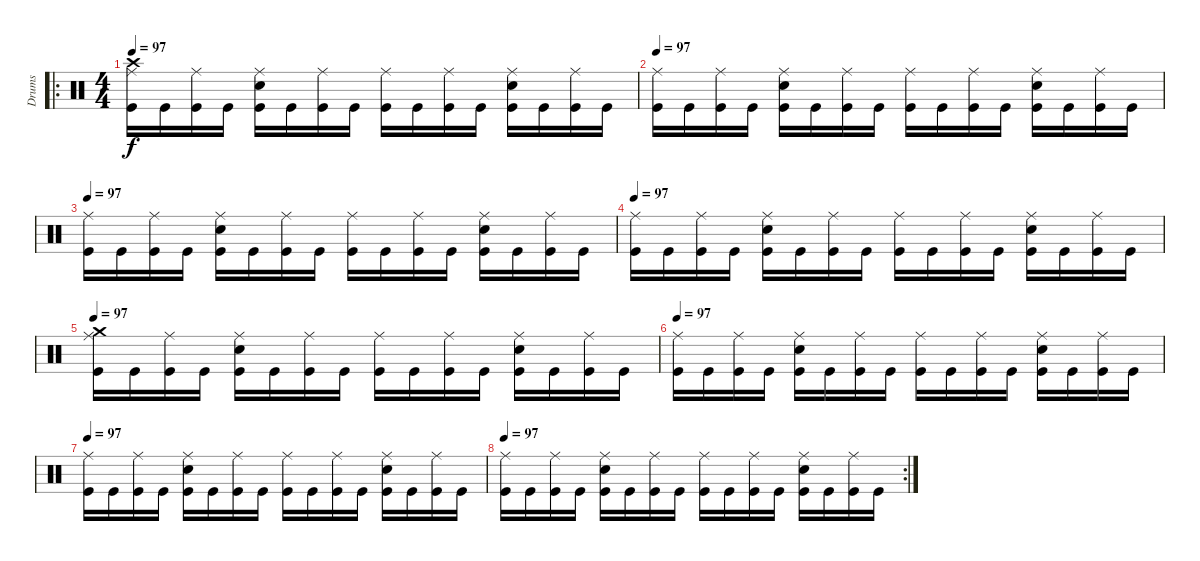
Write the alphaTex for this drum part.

\track ("Drums" "Drums") {instrument percussion}
\staff {score}
\articulation defaults
\ro
\ts (4 4)
\tempo 100
\tempo 97
\clef neutral
\ks c
("Kick (hit)" "Ride (middle)" "Crash high (hit)").16{dy f} "Kick (hit)".16 ("Kick (hit)" "Ride (middle)").16 "Kick (hit)".16 ("Kick (hit)" "Electric Snare (hit)" "Ride (middle)").16 "Kick (hit)".16 ("Kick (hit)" "Ride (middle)").16 "Kick (hit)".16 ("Kick (hit)" "Ride (middle)").16 "Kick (hit)".16 ("Kick (hit)" "Ride (middle)").16 "Kick (hit)".16 ("Kick (hit)" "Electric Snare (hit)" "Ride (middle)").16 "Kick (hit)".16 ("Kick (hit)" "Ride (middle)").16 "Kick (hit)".16 |
\tempo 100
\tempo 97
("Kick (hit)" "Ride (middle)").16 "Kick (hit)".16 ("Kick (hit)" "Ride (middle)").16 "Kick (hit)".16 ("Kick (hit)" "Electric Snare (hit)" "Ride (middle)").16 "Kick (hit)".16 ("Kick (hit)" "Ride (middle)").16 "Kick (hit)".16 ("Kick (hit)" "Ride (middle)").16 "Kick (hit)".16 ("Kick (hit)" "Ride (middle)").16 "Kick (hit)".16 ("Kick (hit)" "Electric Snare (hit)" "Ride (middle)").16 "Kick (hit)".16 ("Kick (hit)" "Ride (middle)").16 "Kick (hit)".16 |
\tempo 100
\tempo 97
("Kick (hit)" "Ride (middle)").16 "Kick (hit)".16 ("Kick (hit)" "Ride (middle)").16 "Kick (hit)".16 ("Kick (hit)" "Electric Snare (hit)" "Ride (middle)").16 "Kick (hit)".16 ("Kick (hit)" "Ride (middle)").16 "Kick (hit)".16 ("Kick (hit)" "Ride (middle)").16 "Kick (hit)".16 ("Kick (hit)" "Ride (middle)").16 "Kick (hit)".16 ("Kick (hit)" "Electric Snare (hit)" "Ride (middle)").16 "Kick (hit)".16 ("Kick (hit)" "Ride (middle)").16 "Kick (hit)".16 |
\tempo 100
\tempo 97
("Kick (hit)" "Ride (middle)").16 "Kick (hit)".16 ("Kick (hit)" "Ride (middle)").16 "Kick (hit)".16 ("Kick (hit)" "Electric Snare (hit)" "Ride (middle)").16 "Kick (hit)".16 ("Kick (hit)" "Ride (middle)").16 "Kick (hit)".16 ("Kick (hit)" "Ride (middle)").16 "Kick (hit)".16 ("Kick (hit)" "Ride (middle)").16 "Kick (hit)".16 ("Kick (hit)" "Electric Snare (hit)" "Ride (middle)").16 "Kick (hit)".16 ("Kick (hit)" "Ride (middle)").16 "Kick (hit)".16 |
\tempo 100
\tempo 97
("Kick (hit)" "Ride (middle)" "Crash medium (hit)").16 "Kick (hit)".16 ("Kick (hit)" "Ride (middle)").16 "Kick (hit)".16 ("Kick (hit)" "Electric Snare (hit)" "Ride (middle)").16 "Kick (hit)".16 ("Kick (hit)" "Ride (middle)").16 "Kick (hit)".16 ("Kick (hit)" "Ride (middle)").16 "Kick (hit)".16 ("Kick (hit)" "Ride (middle)").16 "Kick (hit)".16 ("Kick (hit)" "Electric Snare (hit)" "Ride (middle)").16 "Kick (hit)".16 ("Kick (hit)" "Ride (middle)").16 "Kick (hit)".16 |
\tempo 100
\tempo 97
("Kick (hit)" "Ride (middle)").16 "Kick (hit)".16 ("Kick (hit)" "Ride (middle)").16 "Kick (hit)".16 ("Kick (hit)" "Electric Snare (hit)" "Ride (middle)").16 "Kick (hit)".16 ("Kick (hit)" "Ride (middle)").16 "Kick (hit)".16 ("Kick (hit)" "Ride (middle)").16 "Kick (hit)".16 ("Kick (hit)" "Ride (middle)").16 "Kick (hit)".16 ("Kick (hit)" "Electric Snare (hit)" "Ride (middle)").16 "Kick (hit)".16 ("Kick (hit)" "Ride (middle)").16 "Kick (hit)".16 |
\tempo 100
\tempo 97
("Kick (hit)" "Ride (middle)").16 "Kick (hit)".16 ("Kick (hit)" "Ride (middle)").16 "Kick (hit)".16 ("Kick (hit)" "Electric Snare (hit)" "Ride (middle)").16 "Kick (hit)".16 ("Kick (hit)" "Ride (middle)").16 "Kick (hit)".16 ("Kick (hit)" "Ride (middle)").16 "Kick (hit)".16 ("Kick (hit)" "Ride (middle)").16 "Kick (hit)".16 ("Kick (hit)" "Electric Snare (hit)" "Ride (middle)").16 "Kick (hit)".16 ("Kick (hit)" "Ride (middle)").16 "Kick (hit)".16 |
\rc 2
\tempo 100
\tempo 97
("Kick (hit)" "Ride (middle)").16 "Kick (hit)".16 ("Kick (hit)" "Ride (middle)").16 "Kick (hit)".16 ("Kick (hit)" "Electric Snare (hit)" "Ride (middle)").16 "Kick (hit)".16 ("Kick (hit)" "Ride (middle)").16 "Kick (hit)".16 ("Kick (hit)" "Ride (middle)").16 "Kick (hit)".16 ("Kick (hit)" "Ride (middle)").16 "Kick (hit)".16 ("Kick (hit)" "Electric Snare (hit)" "Ride (middle)").16 "Kick (hit)".16 ("Kick (hit)" "Ride (middle)").16 "Kick (hit)".16
